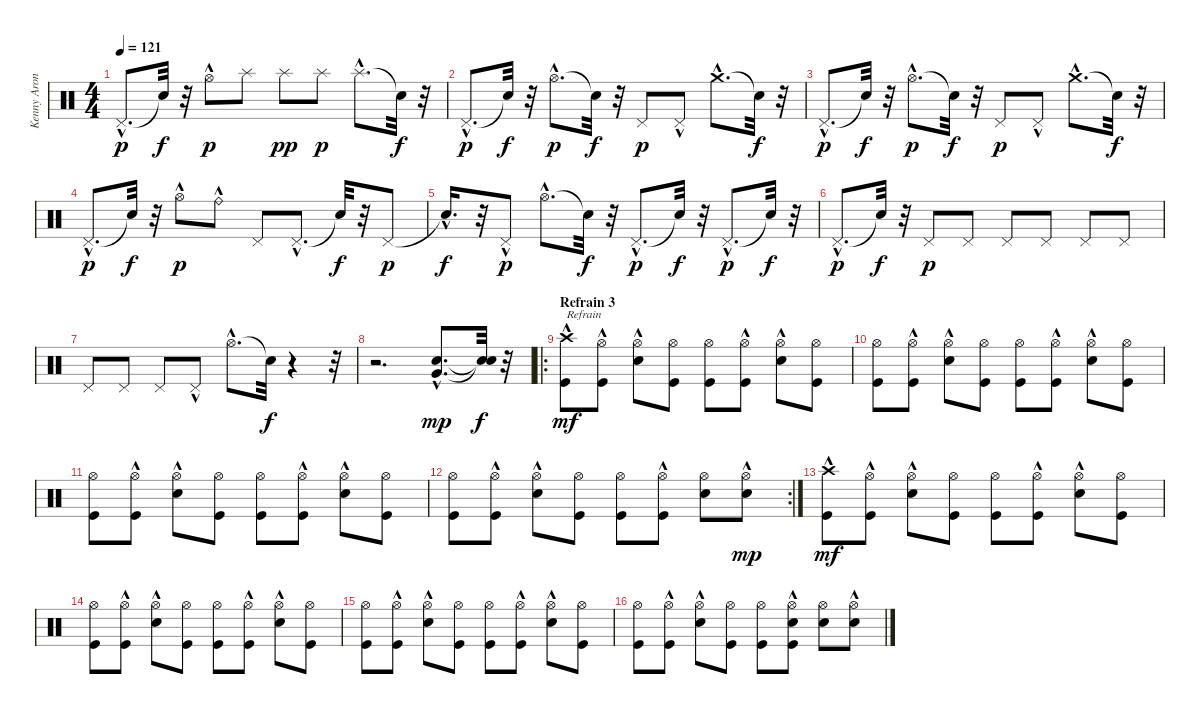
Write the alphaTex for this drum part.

\track ("Kenny Aronoff - Batterie" "Kenny Aron") {instrument percussion}
\staff {score}
\articulation defaults
\ts (4 4)
\tempo 121
\clef neutral
\ks c "Pedal Hi-Hat (hit)"{hac}.8{d dy p} "Snare (hit)"{t}.32{dy f}
r.32 "Hi-Hat (open)"{hac}.8{dy p} "Splash (hit)".8 "Splash (hit)".8{dy pp} "Splash (hit)".8{dy p} "Splash (hit)"{hac}.8{d} "Snare (hit)"{t}.32{dy f} r.32 |
"Pedal Hi-Hat (hit)"{hac}.8{d dy p} "Snare (hit)"{t}.32{dy f} r.32 "Hi-Hat (open)"{hac}.8{d dy p} "Snare (hit)"{t}.32{dy f} r.32 "Pedal Hi-Hat (hit)".8{dy p} "Pedal Hi-Hat (hit)"{hac}.8 "Crash medium (hit)"{hac}.8{d} "Snare (hit)"{t}.32{dy f} r.32 |
"Pedal Hi-Hat (hit)"{hac}.8{d dy p} "Snare (hit)"{t}.32{dy f} r.32 "Hi-Hat (open)"{hac}.8{d dy p} "Snare (hit)"{t}.32{dy f} r.32 "Pedal Hi-Hat (hit)".8{dy p} "Pedal Hi-Hat (hit)"{hac}.8 "Crash medium (hit)"{hac}.8{d} "Snare (hit)"{t}.32{dy f} r.32 |
"Pedal Hi-Hat (hit)"{hac}.8{d dy p} "Snare (hit)"{t}.32{dy f} r.32 "Hi-Hat (open)"{hac}.8{dy p} "Ride (bell)"{hac}.8 "Pedal Hi-Hat (hit)".8 "Pedal Hi-Hat (hit)"{hac}.8{d} "Snare (hit)"{t}.32{dy f} r.32 "Pedal Hi-Hat (hit)".8{dy p} |
"Snare (hit)"{hac t}.16{d dy f} r.32 "Pedal Hi-Hat (hit)"{hac}.8{dy p} "Hi-Hat (open)"{hac}.8{d} "Snare (hit)"{t}.32{dy f} r.32 "Pedal Hi-Hat (hit)"{hac}.8{d dy p} "Snare (hit)"{t}.32{dy f} r.32 "Pedal Hi-Hat (hit)"{hac}.8{d dy p} "Snare (hit)"{t}.32{dy f} r.32 |
"Pedal Hi-Hat (hit)"{hac}.8{d dy p} "Snare (hit)"{t}.32{dy f} r.32 "Pedal Hi-Hat (hit)".8{dy p} "Pedal Hi-Hat (hit)".8 "Pedal Hi-Hat (hit)".8 "Pedal Hi-Hat (hit)".8 "Pedal Hi-Hat (hit)".8 "Pedal Hi-Hat (hit)".8 |
"Pedal Hi-Hat (hit)".8 "Pedal Hi-Hat (hit)".8 "Pedal Hi-Hat (hit)".8 "Pedal Hi-Hat (hit)"{hac}.8 "Hi-Hat (open)"{hac}.8{d} "Snare (hit)"{t}.32{dy f} r.4 r.32 |
r.2{d} ("Electric Snare (hit)"{hac} "Very Low Tom (hit)"{hac}).8{d dy mp} ("Snare (hit)"{t} "Snare (hit)"{t}).32{dy f} r.32 |
\ro
\section ("" "Refrain 3")
("Kick (hit)" "Crash high (hit)"{hac}).8{txt "Refrain " dy mf} ("Hi-Hat (open)" "Kick (hit)"{hac}).8 ("Electric Snare (hit)"{hac} "Hi-Hat (open)").8 ("Hi-Hat (open)" "Kick (hit)").8 ("Kick (hit)" "Hi-Hat (open)").8 ("Hi-Hat (open)" "Kick (hit)"{hac}).8 ("Electric Snare (hit)"{hac} "Hi-Hat (open)").8 ("Hi-Hat (open)" "Kick (hit)").8 |
("Kick (hit)" "Hi-Hat (open)").8 ("Hi-Hat (open)" "Kick (hit)"{hac}).8 ("Electric Snare (hit)"{hac} "Hi-Hat (open)").8 ("Hi-Hat (open)" "Kick (hit)").8 ("Kick (hit)" "Hi-Hat (open)").8 ("Hi-Hat (open)" "Kick (hit)"{hac}).8 ("Electric Snare (hit)"{hac} "Hi-Hat (open)").8 ("Hi-Hat (open)" "Kick (hit)").8 |
("Kick (hit)" "Hi-Hat (open)").8 ("Hi-Hat (open)" "Kick (hit)"{hac}).8 ("Electric Snare (hit)"{hac} "Hi-Hat (open)").8 ("Hi-Hat (open)" "Kick (hit)").8 ("Kick (hit)" "Hi-Hat (open)").8 ("Hi-Hat (open)" "Kick (hit)"{hac}).8 ("Electric Snare (hit)"{hac} "Hi-Hat (open)").8 ("Hi-Hat (open)" "Kick (hit)").8 |
\rc 2
("Kick (hit)" "Hi-Hat (open)").8 ("Hi-Hat (open)" "Kick (hit)"{hac}).8 ("Electric Snare (hit)"{hac} "Hi-Hat (open)").8 ("Hi-Hat (open)" "Kick (hit)").8 ("Kick (hit)" "Hi-Hat (open)").8 ("Hi-Hat (open)" "Kick (hit)"{hac}).8 ("Electric Snare (hit)" "Hi-Hat (open)").8 ("Hi-Hat (open)" "Electric Snare (hit)"{hac}).8{dy mp} |
("Kick (hit)" "Crash high (hit)"{hac}).8{dy mf} ("Hi-Hat (open)" "Kick (hit)"{hac}).8 ("Electric Snare (hit)"{hac} "Hi-Hat (open)").8 ("Hi-Hat (open)" "Kick (hit)").8 ("Kick (hit)" "Hi-Hat (open)").8 ("Hi-Hat (open)" "Kick (hit)"{hac}).8 ("Electric Snare (hit)"{hac} "Hi-Hat (open)").8 ("Hi-Hat (open)" "Kick (hit)").8 |
("Kick (hit)" "Hi-Hat (open)").8 ("Hi-Hat (open)" "Kick (hit)"{hac}).8 ("Electric Snare (hit)"{hac} "Hi-Hat (open)").8 ("Hi-Hat (open)" "Kick (hit)").8 ("Kick (hit)" "Hi-Hat (open)").8 ("Hi-Hat (open)" "Kick (hit)"{hac}).8 ("Electric Snare (hit)"{hac} "Hi-Hat (open)").8 ("Hi-Hat (open)" "Kick (hit)").8 |
("Kick (hit)" "Hi-Hat (open)").8 ("Hi-Hat (open)" "Kick (hit)"{hac}).8 ("Electric Snare (hit)"{hac} "Hi-Hat (open)").8 ("Hi-Hat (open)" "Kick (hit)").8 ("Kick (hit)" "Hi-Hat (open)").8 ("Hi-Hat (open)" "Kick (hit)"{hac}).8 ("Electric Snare (hit)"{hac} "Hi-Hat (open)").8 ("Hi-Hat (open)" "Kick (hit)").8 |
("Kick (hit)" "Hi-Hat (open)").8 ("Hi-Hat (open)" "Kick (hit)"{hac}).8 ("Electric Snare (hit)"{hac} "Hi-Hat (open)").8 ("Hi-Hat (open)" "Kick (hit)").8 ("Kick (hit)" "Hi-Hat (open)").8 ("Hi-Hat (open)" "Kick (hit)"{hac} "Electric Snare (hit)").8 ("Electric Snare (hit)" "Hi-Hat (open)").8 ("Hi-Hat (open)" "Electric Snare (hit)"{hac}).8
